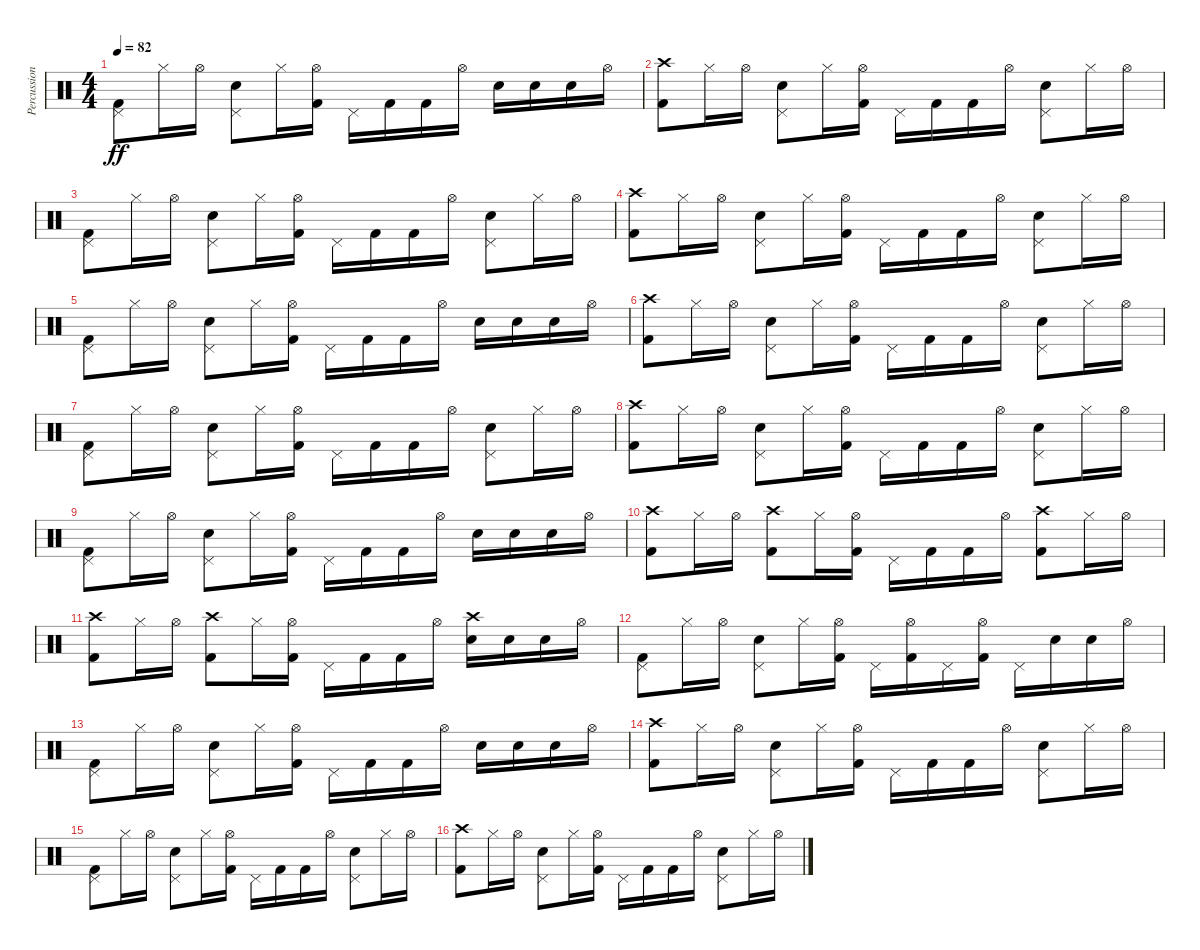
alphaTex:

\track ("Percussion: Nick Mason" "Percussion") {instrument percussion}
\staff {score}
\articulation defaults
\ts (4 4)
\tempo 82
\clef neutral
\ks c
("Pedal Hi-Hat (hit)" "Kick (hit) 2").8{dy ff} "Hi-Hat (closed)".16 "Hi-Hat (open)".16 ("Pedal Hi-Hat (hit)" "Snare (hit) 2").8 "Hi-Hat (closed)".16 ("Hi-Hat (open)" "Kick (hit) 2").16 "Pedal Hi-Hat (hit)".16 "Kick (hit) 2".16 "Kick (hit) 2".16 "Hi-Hat (open)".16 "Snare (hit) 2".16 "Electric Snare (hit)".16 "Electric Snare (hit)".16 "Hi-Hat (open)".16 |
("Crash high (hit)" "Kick (hit) 2").8 "Hi-Hat (closed)".16 "Hi-Hat (open)".16 ("Pedal Hi-Hat (hit)" "Snare (hit) 2").8 "Hi-Hat (closed)".16 ("Hi-Hat (open)" "Kick (hit) 2").16 "Pedal Hi-Hat (hit)".16 "Kick (hit) 2".16 "Kick (hit) 2".16 "Hi-Hat (open)".16 ("Pedal Hi-Hat (hit)" "Snare (hit) 2").8 "Hi-Hat (closed)".16 "Hi-Hat (open)".16 |
("Pedal Hi-Hat (hit)" "Kick (hit) 2").8 "Hi-Hat (closed)".16 "Hi-Hat (open)".16 ("Pedal Hi-Hat (hit)" "Snare (hit) 2").8 "Hi-Hat (closed)".16 ("Hi-Hat (open)" "Kick (hit) 2").16 "Pedal Hi-Hat (hit)".16 "Kick (hit) 2".16 "Kick (hit) 2".16 "Hi-Hat (open)".16 ("Pedal Hi-Hat (hit)" "Snare (hit) 2").8 "Hi-Hat (closed)".16 "Hi-Hat (open)".16 |
("Crash high (hit)" "Kick (hit) 2").8 "Hi-Hat (closed)".16 "Hi-Hat (open)".16 ("Pedal Hi-Hat (hit)" "Snare (hit) 2").8 "Hi-Hat (closed)".16 ("Hi-Hat (open)" "Kick (hit) 2").16 "Pedal Hi-Hat (hit)".16 "Kick (hit) 2".16 "Kick (hit) 2".16 "Hi-Hat (open)".16 ("Pedal Hi-Hat (hit)" "Snare (hit) 2").8 "Hi-Hat (closed)".16 "Hi-Hat (open)".16 |
("Pedal Hi-Hat (hit)" "Kick (hit) 2").8 "Hi-Hat (closed)".16 "Hi-Hat (open)".16 ("Pedal Hi-Hat (hit)" "Snare (hit) 2").8 "Hi-Hat (closed)".16 ("Hi-Hat (open)" "Kick (hit) 2").16 "Pedal Hi-Hat (hit)".16 "Kick (hit) 2".16 "Kick (hit) 2".16 "Hi-Hat (open)".16 "Snare (hit) 2".16 "Electric Snare (hit)".16 "Electric Snare (hit)".16 "Hi-Hat (open)".16 |
("Crash high (hit)" "Kick (hit) 2").8 "Hi-Hat (closed)".16 "Hi-Hat (open)".16 ("Pedal Hi-Hat (hit)" "Snare (hit) 2").8 "Hi-Hat (closed)".16 ("Hi-Hat (open)" "Kick (hit) 2").16 "Pedal Hi-Hat (hit)".16 "Kick (hit) 2".16 "Kick (hit) 2".16 "Hi-Hat (open)".16 ("Pedal Hi-Hat (hit)" "Snare (hit) 2").8 "Hi-Hat (closed)".16 "Hi-Hat (open)".16 |
("Pedal Hi-Hat (hit)" "Kick (hit) 2").8 "Hi-Hat (closed)".16 "Hi-Hat (open)".16 ("Pedal Hi-Hat (hit)" "Snare (hit) 2").8 "Hi-Hat (closed)".16 ("Hi-Hat (open)" "Kick (hit) 2").16 "Pedal Hi-Hat (hit)".16 "Kick (hit) 2".16 "Kick (hit) 2".16 "Hi-Hat (open)".16 ("Pedal Hi-Hat (hit)" "Snare (hit) 2").8 "Hi-Hat (closed)".16 "Hi-Hat (open)".16 |
("Crash high (hit)" "Kick (hit) 2").8 "Hi-Hat (closed)".16 "Hi-Hat (open)".16 ("Pedal Hi-Hat (hit)" "Snare (hit) 2").8 "Hi-Hat (closed)".16 ("Hi-Hat (open)" "Kick (hit) 2").16 "Pedal Hi-Hat (hit)".16 "Kick (hit) 2".16 "Kick (hit) 2".16 "Hi-Hat (open)".16 ("Pedal Hi-Hat (hit)" "Snare (hit) 2").8 "Hi-Hat (closed)".16 "Hi-Hat (open)".16 |
("Pedal Hi-Hat (hit)" "Kick (hit) 2").8 "Hi-Hat (closed)".16 "Hi-Hat (open)".16 ("Pedal Hi-Hat (hit)" "Snare (hit) 2").8 "Hi-Hat (closed)".16 ("Hi-Hat (open)" "Kick (hit) 2").16 "Pedal Hi-Hat (hit)".16 "Kick (hit) 2".16 "Kick (hit) 2".16 "Hi-Hat (open)".16 "Snare (hit) 2".16 "Electric Snare (hit)".16 "Electric Snare (hit)".16 "Hi-Hat (open)".16 |
("Crash high (hit)" "Kick (hit) 2").8 "Hi-Hat (closed)".16 "Hi-Hat (open)".16 ("Crash high (hit)" "Kick (hit) 2").8 "Hi-Hat (closed)".16 ("Hi-Hat (open)" "Kick (hit) 2").16 "Pedal Hi-Hat (hit)".16 "Kick (hit) 2".16 "Kick (hit) 2".16 "Hi-Hat (open)".16 ("Crash high (hit)" "Kick (hit) 2").8 "Hi-Hat (closed)".16 "Hi-Hat (open)".16 |
("Crash high (hit)" "Kick (hit) 2").8 "Hi-Hat (closed)".16 "Hi-Hat (open)".16 ("Crash high (hit)" "Kick (hit) 2").8 "Hi-Hat (closed)".16 ("Hi-Hat (open)" "Kick (hit) 2").16 "Pedal Hi-Hat (hit)".16 "Kick (hit) 2".16 "Kick (hit) 2".16 "Hi-Hat (open)".16 ("Crash high (hit)" "Snare (hit) 2").16 "Electric Snare (hit)".16 "Electric Snare (hit)".16 "Hi-Hat (open)".16 |
("Pedal Hi-Hat (hit)" "Kick (hit) 2").8 "Hi-Hat (closed)".16 "Hi-Hat (open)".16 ("Pedal Hi-Hat (hit)" "Snare (hit) 2").8 "Hi-Hat (closed)".16 ("Hi-Hat (open)" "Kick (hit) 2").16 "Pedal Hi-Hat (hit)".16 ("Hi-Hat (open)" "Kick (hit) 2").16 "Pedal Hi-Hat (hit)".16 ("Hi-Hat (open)" "Kick (hit) 2").16 "Pedal Hi-Hat (hit)".16 "Electric Snare (hit)".16 "Electric Snare (hit)".16 "Hi-Hat (open)".16 |
("Pedal Hi-Hat (hit)" "Kick (hit) 2").8 "Hi-Hat (closed)".16 "Hi-Hat (open)".16 ("Pedal Hi-Hat (hit)" "Snare (hit) 2").8 "Hi-Hat (closed)".16 ("Hi-Hat (open)" "Kick (hit) 2").16 "Pedal Hi-Hat (hit)".16 "Kick (hit) 2".16 "Kick (hit) 2".16 "Hi-Hat (open)".16 "Snare (hit) 2".16 "Electric Snare (hit)".16 "Electric Snare (hit)".16 "Hi-Hat (open)".16 |
("Crash high (hit)" "Kick (hit) 2").8 "Hi-Hat (closed)".16 "Hi-Hat (open)".16 ("Pedal Hi-Hat (hit)" "Snare (hit) 2").8 "Hi-Hat (closed)".16 ("Hi-Hat (open)" "Kick (hit) 2").16 "Pedal Hi-Hat (hit)".16 "Kick (hit) 2".16 "Kick (hit) 2".16 "Hi-Hat (open)".16 ("Pedal Hi-Hat (hit)" "Snare (hit) 2").8 "Hi-Hat (closed)".16 "Hi-Hat (open)".16 |
("Pedal Hi-Hat (hit)" "Kick (hit) 2").8 "Hi-Hat (closed)".16 "Hi-Hat (open)".16 ("Pedal Hi-Hat (hit)" "Snare (hit) 2").8 "Hi-Hat (closed)".16 ("Hi-Hat (open)" "Kick (hit) 2").16 "Pedal Hi-Hat (hit)".16 "Kick (hit) 2".16 "Kick (hit) 2".16 "Hi-Hat (open)".16 ("Pedal Hi-Hat (hit)" "Snare (hit) 2").8 "Hi-Hat (closed)".16 "Hi-Hat (open)".16 |
("Crash high (hit)" "Kick (hit) 2").8 "Hi-Hat (closed)".16 "Hi-Hat (open)".16 ("Pedal Hi-Hat (hit)" "Snare (hit) 2").8 "Hi-Hat (closed)".16 ("Hi-Hat (open)" "Kick (hit) 2").16 "Pedal Hi-Hat (hit)".16 "Kick (hit) 2".16 "Kick (hit) 2".16 "Hi-Hat (open)".16 ("Pedal Hi-Hat (hit)" "Snare (hit) 2").8 "Hi-Hat (closed)".16 "Hi-Hat (open)".16
